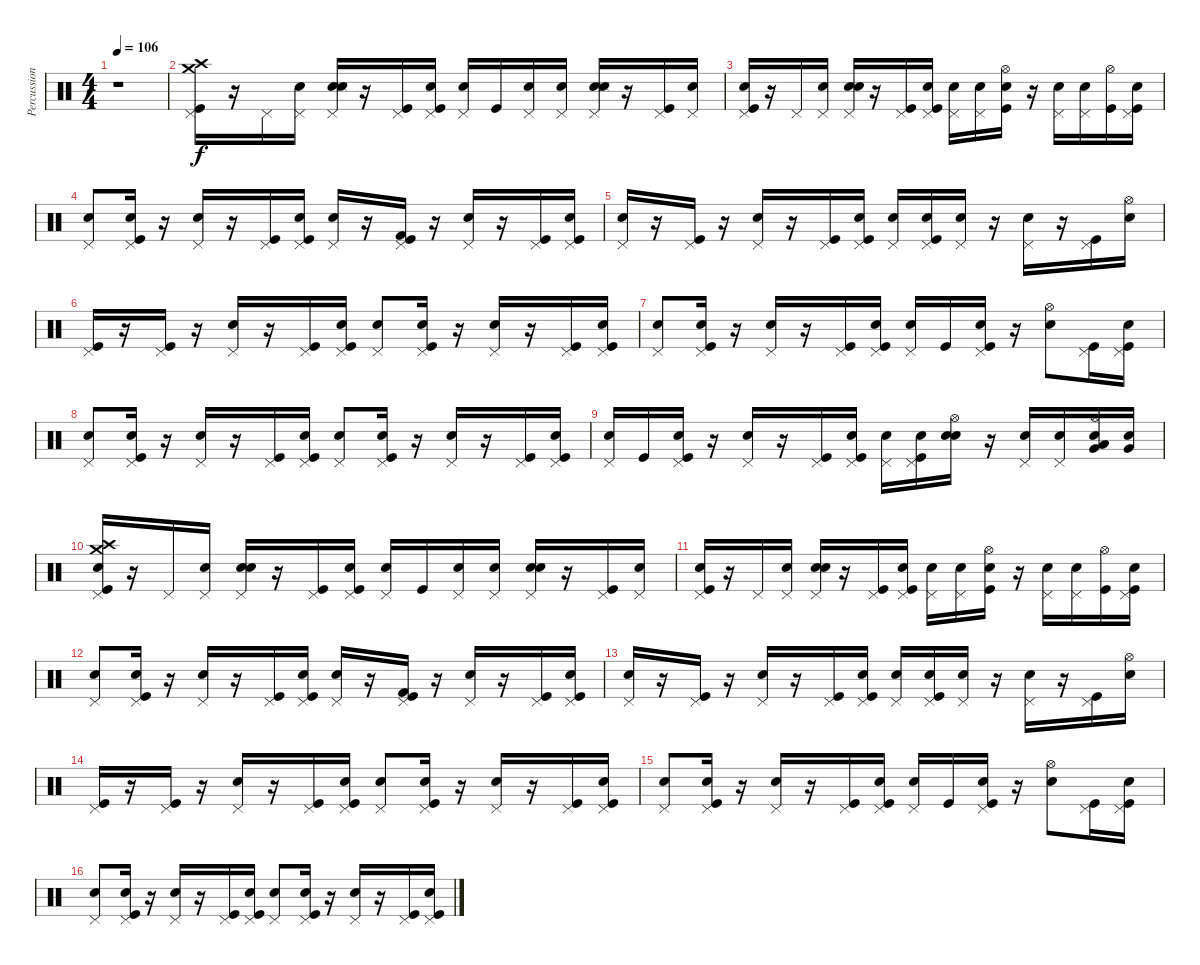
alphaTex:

\track ("Percussions (Zaac)" "Percussion") {instrument percussion}
\staff {score}
\articulation defaults
\ts (4 4)
\tempo 106
\clef neutral
\ks c
r.1{dy f} |
("Kick (hit)" "Pedal Hi-Hat (hit)" "Crash high (hit)" "Crash medium (hit)").16 r.16 "Pedal Hi-Hat (hit)".16 ("Snare (hit)" "Pedal Hi-Hat (hit)").16 ("Snare (hit)" "Snare (side stick) 3" "Electric Snare (hit)" "Pedal Hi-Hat (hit)").16 r.16 ("Kick (hit)" "Pedal Hi-Hat (hit)").16 ("Snare (hit)" "Kick (hit)" "Pedal Hi-Hat (hit)").16 ("Snare (hit)" "Pedal Hi-Hat (hit)").16 "Kick (hit)".16 ("Snare (hit)" "Pedal Hi-Hat (hit)").16 ("Snare (hit)" "Pedal Hi-Hat (hit)").16 ("Snare (hit)" "Snare (side stick) 3" "Electric Snare (hit)" "Pedal Hi-Hat (hit)").16 r.16 ("Kick (hit)" "Pedal Hi-Hat (hit)").16 ("Snare (hit)" "Pedal Hi-Hat (hit)").16 |
("Snare (hit)" "Kick (hit)" "Pedal Hi-Hat (hit)").16 r.16 "Pedal Hi-Hat (hit)".16 ("Snare (hit)" "Pedal Hi-Hat (hit)").16 ("Snare (hit)" "Electric Snare (hit)" "Pedal Hi-Hat (hit)").16 r.16 ("Kick (hit)" "Pedal Hi-Hat (hit)").16 ("Snare (hit)" "Kick (hit)" "Pedal Hi-Hat (hit)").16 ("Snare (hit)" "Pedal Hi-Hat (hit)").16 ("Snare (hit)" "Pedal Hi-Hat (hit)").16 ("Snare (hit)" "Kick (hit)" "Hi-Hat (open)").16 r.16 ("Electric Snare (hit)" "Pedal Hi-Hat (hit)").16 ("Snare (hit)" "Pedal Hi-Hat (hit)").16 ("Kick (hit)" "Hi-Hat (open)").16 ("Snare (hit)" "Kick (hit)" "Pedal Hi-Hat (hit)").16 |
("Snare (hit)" "Pedal Hi-Hat (hit)").8 ("Snare (hit)" "Kick (hit)" "Pedal Hi-Hat (hit)").16 r.16 ("Electric Snare (hit)" "Pedal Hi-Hat (hit)").16 r.16 ("Kick (hit)" "Pedal Hi-Hat (hit)").16 ("Snare (hit)" "Kick (hit)" "Pedal Hi-Hat (hit)").16 ("Snare (hit)" "Pedal Hi-Hat (hit)").16 r.16 ("Kick (hit)" "Kick (hit) 2" "Pedal Hi-Hat (hit)").16 r.16 ("Electric Snare (hit)" "Pedal Hi-Hat (hit)").16 r.16 ("Kick (hit)" "Pedal Hi-Hat (hit)").16 ("Snare (hit)" "Kick (hit)" "Pedal Hi-Hat (hit)").16 |
("Snare (hit)" "Pedal Hi-Hat (hit)").16 r.16 ("Kick (hit)" "Pedal Hi-Hat (hit)").16 r.16 ("Electric Snare (hit)" "Pedal Hi-Hat (hit)").16 r.16 ("Kick (hit)" "Pedal Hi-Hat (hit)").16 ("Snare (hit)" "Kick (hit)" "Pedal Hi-Hat (hit)").16 ("Snare (hit)" "Pedal Hi-Hat (hit)").16 ("Snare (hit)" "Kick (hit)" "Pedal Hi-Hat (hit)").16 ("Snare (hit)" "Pedal Hi-Hat (hit)").16 r.16 ("Electric Snare (hit)" "Pedal Hi-Hat (hit)").16 r.16 ("Kick (hit)" "Pedal Hi-Hat (hit)").16 ("Snare (hit)" "Hi-Hat (open)").16 |
("Kick (hit)" "Pedal Hi-Hat (hit)").16 r.16 ("Kick (hit)" "Pedal Hi-Hat (hit)").16 r.16 ("Electric Snare (hit)" "Pedal Hi-Hat (hit)").16 r.16 ("Kick (hit)" "Pedal Hi-Hat (hit)").16 ("Snare (hit)" "Kick (hit)" "Pedal Hi-Hat (hit)").16 ("Snare (hit)" "Pedal Hi-Hat (hit)").8 ("Snare (hit)" "Kick (hit)" "Pedal Hi-Hat (hit)").16 r.16 ("Electric Snare (hit)" "Pedal Hi-Hat (hit)").16 r.16 ("Kick (hit)" "Pedal Hi-Hat (hit)").16 ("Snare (hit)" "Kick (hit)" "Pedal Hi-Hat (hit)").16 |
("Snare (hit)" "Pedal Hi-Hat (hit)").8 ("Snare (hit)" "Kick (hit)" "Pedal Hi-Hat (hit)").16 r.16 ("Electric Snare (hit)" "Pedal Hi-Hat (hit)").16 r.16 ("Kick (hit)" "Pedal Hi-Hat (hit)").16 ("Snare (hit)" "Kick (hit)" "Pedal Hi-Hat (hit)").16 ("Snare (hit)" "Pedal Hi-Hat (hit)").16 "Kick (hit)".16 ("Snare (hit)" "Kick (hit)" "Pedal Hi-Hat (hit)").16 r.16 ("Electric Snare (hit)" "Hi-Hat (open)").8 ("Kick (hit)" "Pedal Hi-Hat (hit)").16 ("Snare (hit)" "Kick (hit)" "Pedal Hi-Hat (hit)").16 |
("Snare (hit)" "Pedal Hi-Hat (hit)").8 ("Snare (hit)" "Kick (hit)" "Pedal Hi-Hat (hit)").16 r.16 ("Electric Snare (hit)" "Pedal Hi-Hat (hit)").16 r.16 ("Kick (hit)" "Pedal Hi-Hat (hit)").16 ("Snare (hit)" "Kick (hit)" "Pedal Hi-Hat (hit)").16 ("Snare (hit)" "Pedal Hi-Hat (hit)").8 ("Snare (hit)" "Kick (hit)" "Pedal Hi-Hat (hit)").16 r.16 ("Electric Snare (hit)" "Pedal Hi-Hat (hit)").16 r.16 ("Kick (hit)" "Pedal Hi-Hat (hit)").16 ("Snare (hit)" "Kick (hit)" "Pedal Hi-Hat (hit)").16 |
("Snare (hit)" "Pedal Hi-Hat (hit)").16 "Kick (hit)".16 ("Snare (hit)" "Kick (hit)" "Pedal Hi-Hat (hit)").16 r.16 ("Electric Snare (hit)" "Pedal Hi-Hat (hit)").16 r.16 ("Kick (hit)" "Pedal Hi-Hat (hit)").16 ("Snare (hit)" "Kick (hit)" "Pedal Hi-Hat (hit)").16 ("Snare (hit)" "Pedal Hi-Hat (hit)").16 ("Snare (hit)" "Kick (hit)" "Pedal Hi-Hat (hit)").16 ("Snare (hit)" "Electric Snare (hit)" "Hi-Hat (open)").16 r.16 ("Electric Snare (hit)" "Pedal Hi-Hat (hit)").16 ("Snare (hit)" "Pedal Hi-Hat (hit)").16 ("Snare (hit)" "Very Low Tom (hit)" "Low Tom (hit)" "Hi-Hat (open)").16 ("Snare (hit)" "Very Low Tom (hit)").16 |
("Snare (hit)" "Kick (hit)" "Pedal Hi-Hat (hit)" "Crash high (hit)" "Crash medium (hit)").16 r.16 "Pedal Hi-Hat (hit)".16 ("Snare (hit)" "Pedal Hi-Hat (hit)").16 ("Snare (hit)" "Electric Snare (hit)" "Pedal Hi-Hat (hit)").16 r.16 ("Kick (hit)" "Pedal Hi-Hat (hit)").16 ("Snare (hit)" "Kick (hit)" "Pedal Hi-Hat (hit)").16 ("Snare (hit)" "Pedal Hi-Hat (hit)").16 "Kick (hit)".16 ("Snare (hit)" "Pedal Hi-Hat (hit)").16 ("Snare (hit)" "Pedal Hi-Hat (hit)").16 ("Snare (hit)" "Electric Snare (hit)" "Pedal Hi-Hat (hit)").16 r.16 ("Kick (hit)" "Pedal Hi-Hat (hit)").16 ("Snare (hit)" "Pedal Hi-Hat (hit)").16 |
("Snare (hit)" "Kick (hit)" "Pedal Hi-Hat (hit)").16 r.16 "Pedal Hi-Hat (hit)".16 ("Snare (hit)" "Pedal Hi-Hat (hit)").16 ("Snare (hit)" "Electric Snare (hit)" "Pedal Hi-Hat (hit)").16 r.16 ("Kick (hit)" "Pedal Hi-Hat (hit)").16 ("Snare (hit)" "Kick (hit)" "Pedal Hi-Hat (hit)").16 ("Snare (hit)" "Pedal Hi-Hat (hit)").16 ("Snare (hit)" "Pedal Hi-Hat (hit)").16 ("Snare (hit)" "Kick (hit)" "Hi-Hat (open)").16 r.16 ("Electric Snare (hit)" "Pedal Hi-Hat (hit)").16 ("Snare (hit)" "Pedal Hi-Hat (hit)").16 ("Kick (hit)" "Hi-Hat (open)").16 ("Snare (hit)" "Kick (hit)" "Pedal Hi-Hat (hit)").16 |
("Snare (hit)" "Pedal Hi-Hat (hit)").8 ("Snare (hit)" "Kick (hit)" "Pedal Hi-Hat (hit)").16 r.16 ("Electric Snare (hit)" "Pedal Hi-Hat (hit)").16 r.16 ("Kick (hit)" "Pedal Hi-Hat (hit)").16 ("Snare (hit)" "Kick (hit)" "Pedal Hi-Hat (hit)").16 ("Snare (hit)" "Pedal Hi-Hat (hit)").16 r.16 ("Kick (hit)" "Kick (hit) 2" "Pedal Hi-Hat (hit)").16 r.16 ("Electric Snare (hit)" "Pedal Hi-Hat (hit)").16 r.16 ("Kick (hit)" "Pedal Hi-Hat (hit)").16 ("Snare (hit)" "Kick (hit)" "Pedal Hi-Hat (hit)").16 |
("Snare (hit)" "Pedal Hi-Hat (hit)").16 r.16 ("Kick (hit)" "Pedal Hi-Hat (hit)").16 r.16 ("Electric Snare (hit)" "Pedal Hi-Hat (hit)").16 r.16 ("Kick (hit)" "Pedal Hi-Hat (hit)").16 ("Snare (hit)" "Kick (hit)" "Pedal Hi-Hat (hit)").16 ("Snare (hit)" "Pedal Hi-Hat (hit)").16 ("Snare (hit)" "Kick (hit)" "Pedal Hi-Hat (hit)").16 ("Snare (hit)" "Pedal Hi-Hat (hit)").16 r.16 ("Electric Snare (hit)" "Pedal Hi-Hat (hit)").16 r.16 ("Kick (hit)" "Pedal Hi-Hat (hit)").16 ("Snare (hit)" "Hi-Hat (open)").16 |
("Kick (hit)" "Pedal Hi-Hat (hit)").16 r.16 ("Kick (hit)" "Pedal Hi-Hat (hit)").16 r.16 ("Electric Snare (hit)" "Pedal Hi-Hat (hit)").16 r.16 ("Kick (hit)" "Pedal Hi-Hat (hit)").16 ("Snare (hit)" "Kick (hit)" "Pedal Hi-Hat (hit)").16 ("Snare (hit)" "Pedal Hi-Hat (hit)").8 ("Snare (hit)" "Kick (hit)" "Pedal Hi-Hat (hit)").16 r.16 ("Electric Snare (hit)" "Pedal Hi-Hat (hit)").16 r.16 ("Kick (hit)" "Pedal Hi-Hat (hit)").16 ("Snare (hit)" "Kick (hit)" "Pedal Hi-Hat (hit)").16 |
("Snare (hit)" "Pedal Hi-Hat (hit)").8 ("Snare (hit)" "Kick (hit)" "Pedal Hi-Hat (hit)").16 r.16 ("Electric Snare (hit)" "Pedal Hi-Hat (hit)").16 r.16 ("Kick (hit)" "Pedal Hi-Hat (hit)").16 ("Snare (hit)" "Kick (hit)" "Pedal Hi-Hat (hit)").16 ("Snare (hit)" "Pedal Hi-Hat (hit)").16 "Kick (hit)".16 ("Snare (hit)" "Kick (hit)" "Pedal Hi-Hat (hit)").16 r.16 ("Electric Snare (hit)" "Hi-Hat (open)").8 ("Kick (hit)" "Pedal Hi-Hat (hit)").16 ("Snare (hit)" "Kick (hit)" "Pedal Hi-Hat (hit)").16 |
("Snare (hit)" "Pedal Hi-Hat (hit)").8 ("Snare (hit)" "Kick (hit)" "Pedal Hi-Hat (hit)").16 r.16 ("Electric Snare (hit)" "Pedal Hi-Hat (hit)").16 r.16 ("Kick (hit)" "Pedal Hi-Hat (hit)").16 ("Snare (hit)" "Kick (hit)" "Pedal Hi-Hat (hit)").16 ("Snare (hit)" "Pedal Hi-Hat (hit)").8 ("Snare (hit)" "Kick (hit)" "Pedal Hi-Hat (hit)").16 r.16 ("Electric Snare (hit)" "Pedal Hi-Hat (hit)").16 r.16 ("Kick (hit)" "Pedal Hi-Hat (hit)").16 ("Snare (hit)" "Kick (hit)" "Pedal Hi-Hat (hit)").16
